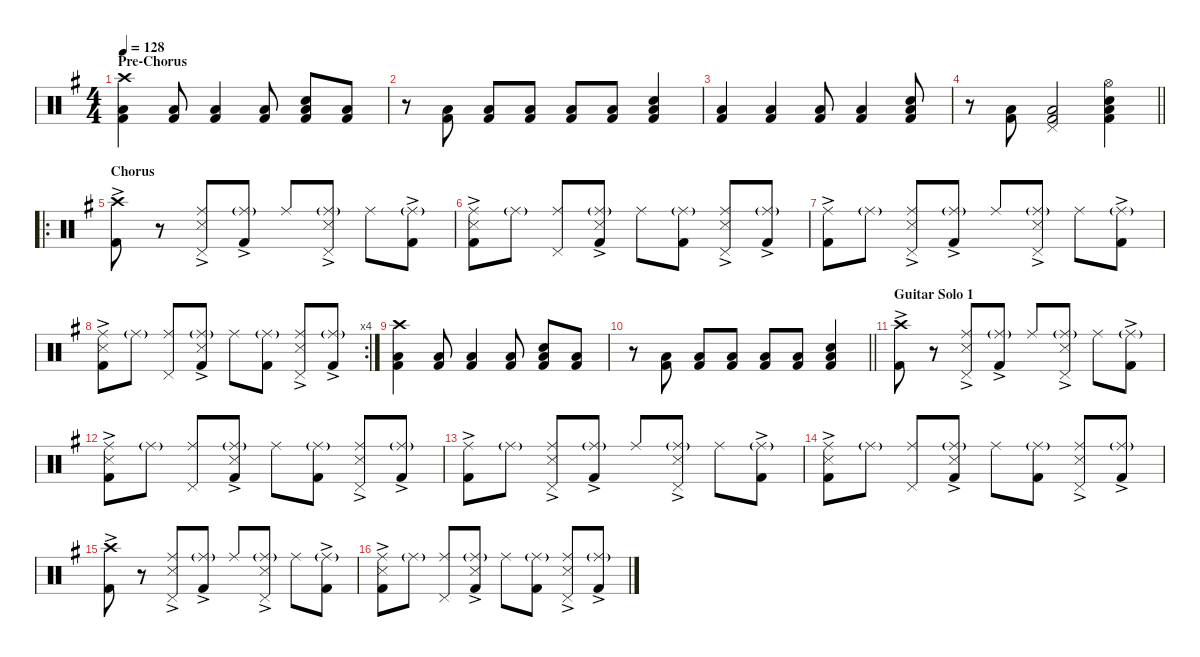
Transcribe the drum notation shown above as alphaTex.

\defaultSystemsLayout 4
\hideDynamics
\bracketExtendMode nobrackets
\singleTrackTrackNamePolicy hidden
\multiTrackTrackNamePolicy hidden
\firstSystemTrackNameMode fullname
\firstSystemTrackNameOrientation horizontal
\otherSystemsTrackNameOrientation horizontal
\track ("Drums" "drm.") {instrument percussion}
\staff {score}
\articulation defaults
\ts (4 4)
\section ("" "Pre-Chorus")
\tempo 128
\clef neutral
\ks g
("Crash high (hit)"{acc forcenatural} "Low Floor Tom (hit)"{acc forcenatural} "Kick (hit) 2"{acc forcenatural}).4{dy f beam Down} ("Low Tom (hit)"{acc forcenatural} "Kick (hit) 2"{acc forcenatural}).8{beam Up} ("Low Floor Tom (hit)"{acc forcenatural} "Kick (hit) 2"{acc forcenatural}).4{beam Up} ("Low Tom (hit)"{acc forcenatural} "Kick (hit) 2"{acc forcenatural}).8{beam Up} ("Snare (hit) 2"{acc forcenatural} "Low Floor Tom (hit)"{acc forcenatural} "Kick (hit) 2"{acc forcenatural}).8{beam Up} ("Low Tom (hit)"{acc forcenatural} "Kick (hit) 2"{acc forcenatural}).8{beam Up} |
r.8{beam Down} ("Low Tom (hit)"{acc forcenatural} "Kick (hit) 2"{acc forcenatural}).8{beam Up} ("Low Floor Tom (hit)"{acc forcenatural} "Kick (hit) 2"{acc forcenatural}).8{beam Up} ("Low Tom (hit)"{acc forcenatural} "Kick (hit) 2"{acc forcenatural}).8{beam Up} ("Low Floor Tom (hit)"{acc forcenatural} "Kick (hit) 2"{acc forcenatural}).8{beam Up} ("Low Tom (hit)"{acc forcenatural} "Kick (hit) 2"{acc forcenatural}).8{beam Up} ("Snare (hit) 2"{acc forcenatural} "Low Floor Tom (hit)"{acc forcenatural} "Kick (hit) 2"{acc forcenatural}).4{beam Up} |
("Low Floor Tom (hit)"{acc forcenatural} "Kick (hit) 2"{acc forcenatural}).4{beam Up} ("Low Tom (hit)"{acc forcenatural} "Kick (hit) 2"{acc forcenatural}).4{beam Up} ("Low Floor Tom (hit)"{acc forcenatural} "Kick (hit) 2"{acc forcenatural}).8{beam Up} ("Low Tom (hit)"{acc forcenatural} "Kick (hit) 2"{acc forcenatural}).4{beam Up} ("Snare (hit) 2"{acc forcenatural} "Low Floor Tom (hit)"{acc forcenatural} "Kick (hit) 2"{acc forcenatural}).8{beam Up} |
\barLineRight lightlight
r.8{beam Down} ("Low Tom (hit)"{acc forcenatural} "Kick (hit) 2"{acc forcenatural}).8{beam Up} ("Pedal Hi-Hat (hit)"{acc forcenatural} "Low Floor Tom (hit)"{acc forcenatural} "Kick (hit) 2"{acc forcenatural}).2{beam Up} ("Hi-Hat (open)"{acc forcenatural} "Snare (hit) 2"{acc forcenatural} "Low Floor Tom (hit)"{acc forcenatural} "Kick (hit) 2"{acc forcenatural}).4{beam Down} |
\ro
\section ("" "Chorus")
("Crash high (hit)"{acc forcenatural} "Kick (hit) 2"{ac acc forcenatural}).8{beam Down} r.8{beam Down} ("Ride (middle)"{acc forcenatural} "Pedal Hi-Hat (hit)"{acc forcenatural} "Snare (side stick) 3"{ac acc forcenatural}).8{beam Up} ("Ride (middle)"{g acc forcenatural} "Kick (hit) 2"{ac acc forcenatural}).8{dy mf beam Up} "Ride (middle)"{acc forcenatural}.8{dy f beam Up} ("Ride (middle)"{g acc forcenatural} "Pedal Hi-Hat (hit)"{acc forcenatural} "Snare (side stick) 3"{ac acc forcenatural}).8{beam Up} "Ride (middle)"{acc forcenatural}.8{beam Down} ("Ride (middle)"{g acc forcenatural} "Kick (hit) 2"{ac acc forcenatural}).8{dy mf beam Down} |
("Ride (middle)"{acc forcenatural} "Snare (side stick) 3"{ac acc forcenatural} "Kick (hit) 2"{ac acc forcenatural}).8{dy f beam Down} "Ride (middle)"{g acc forcenatural}.8{dy mf beam Down} ("Ride (middle)"{acc forcenatural} "Pedal Hi-Hat (hit)"{acc forcenatural}).8{dy f beam Up} ("Ride (middle)"{g acc forcenatural} "Snare (side stick) 3"{ac acc forcenatural} "Kick (hit) 2"{ac acc forcenatural}).8{dy mf beam Up} "Ride (middle)"{acc forcenatural}.8{dy f beam Down} ("Ride (middle)"{g acc forcenatural} "Kick (hit) 2"{acc forcenatural}).8{beam Down} ("Ride (middle)"{acc forcenatural} "Pedal Hi-Hat (hit)"{acc forcenatural} "Snare (side stick) 3"{ac acc forcenatural}).8{beam Up} ("Ride (middle)"{g acc forcenatural} "Kick (hit) 2"{ac acc forcenatural}).8{dy mf beam Up} |
("Ride (middle)"{acc forcenatural} "Kick (hit) 2"{ac acc forcenatural}).8{dy f beam Down} "Ride (middle)"{g acc forcenatural}.8{dy mf beam Down} ("Ride (middle)"{acc forcenatural} "Pedal Hi-Hat (hit)"{acc forcenatural} "Snare (side stick) 3"{ac acc forcenatural}).8{dy f beam Up} ("Ride (middle)"{g acc forcenatural} "Kick (hit) 2"{ac acc forcenatural}).8{dy mf beam Up} "Ride (middle)"{acc forcenatural}.8{dy f beam Up} ("Ride (middle)"{g acc forcenatural} "Pedal Hi-Hat (hit)"{acc forcenatural} "Snare (side stick) 3"{ac acc forcenatural}).8{beam Up} "Ride (middle)"{acc forcenatural}.8{beam Down} ("Ride (middle)"{g acc forcenatural} "Kick (hit) 2"{ac acc forcenatural}).8{dy mf beam Down} |
\rc 4
("Ride (middle)"{acc forcenatural} "Snare (side stick) 3"{ac acc forcenatural} "Kick (hit) 2"{ac acc forcenatural}).8{dy f beam Down} "Ride (middle)"{g acc forcenatural}.8{dy mf beam Down} ("Ride (middle)"{acc forcenatural} "Pedal Hi-Hat (hit)"{acc forcenatural}).8{dy f beam Up} ("Ride (middle)"{g acc forcenatural} "Snare (side stick) 3"{ac acc forcenatural} "Kick (hit) 2"{ac acc forcenatural}).8{dy mf beam Up} "Ride (middle)"{acc forcenatural}.8{dy f beam Down} ("Ride (middle)"{g acc forcenatural} "Kick (hit) 2"{acc forcenatural}).8{beam Down} ("Ride (middle)"{acc forcenatural} "Pedal Hi-Hat (hit)"{acc forcenatural} "Snare (side stick) 3"{ac acc forcenatural}).8{beam Up} ("Ride (middle)"{g acc forcenatural} "Kick (hit) 2"{ac acc forcenatural}).8{dy mf beam Up} |
("Crash high (hit)"{acc forcenatural} "Low Floor Tom (hit)"{acc forcenatural} "Kick (hit) 2"{acc forcenatural}).4{dy f beam Down} ("Low Tom (hit)"{acc forcenatural} "Kick (hit) 2"{acc forcenatural}).8{beam Up} ("Low Floor Tom (hit)"{acc forcenatural} "Kick (hit) 2"{acc forcenatural}).4{beam Up} ("Low Tom (hit)"{acc forcenatural} "Kick (hit) 2"{acc forcenatural}).8{beam Up} ("Snare (hit) 2"{acc forcenatural} "Low Floor Tom (hit)"{acc forcenatural} "Kick (hit) 2"{acc forcenatural}).8{beam Up} ("Low Tom (hit)"{acc forcenatural} "Kick (hit) 2"{acc forcenatural}).8{beam Up} |
\barLineRight lightlight
r.8{beam Down} ("Low Tom (hit)"{acc forcenatural} "Kick (hit) 2"{acc forcenatural}).8{beam Up} ("Low Floor Tom (hit)"{acc forcenatural} "Kick (hit) 2"{acc forcenatural}).8{beam Up} ("Low Tom (hit)"{acc forcenatural} "Kick (hit) 2"{acc forcenatural}).8{beam Up} ("Low Floor Tom (hit)"{acc forcenatural} "Kick (hit) 2"{acc forcenatural}).8{beam Up} ("Low Tom (hit)"{acc forcenatural} "Kick (hit) 2"{acc forcenatural}).8{beam Up} ("Snare (hit) 2"{acc forcenatural} "Low Floor Tom (hit)"{acc forcenatural} "Kick (hit) 2"{acc forcenatural}).4{beam Up} |
\section ("" "Guitar Solo 1")
("Crash high (hit)"{acc forcenatural} "Kick (hit) 2"{ac acc forcenatural}).8{beam Down} r.8{beam Down} ("Ride (middle)"{acc forcenatural} "Pedal Hi-Hat (hit)"{acc forcenatural} "Snare (side stick) 3"{ac acc forcenatural}).8{beam Up} ("Ride (middle)"{g acc forcenatural} "Kick (hit) 2"{ac acc forcenatural}).8{dy mf beam Up} "Ride (middle)"{acc forcenatural}.8{dy f beam Up} ("Ride (middle)"{g acc forcenatural} "Pedal Hi-Hat (hit)"{acc forcenatural} "Snare (side stick) 3"{ac acc forcenatural}).8{beam Up} "Ride (middle)"{acc forcenatural}.8{beam Down} ("Ride (middle)"{g acc forcenatural} "Kick (hit) 2"{ac acc forcenatural}).8{dy mf beam Down} |
("Ride (middle)"{acc forcenatural} "Snare (side stick) 3"{ac acc forcenatural} "Kick (hit) 2"{ac acc forcenatural}).8{dy f beam Down} "Ride (middle)"{g acc forcenatural}.8{dy mf beam Down} ("Ride (middle)"{acc forcenatural} "Pedal Hi-Hat (hit)"{acc forcenatural}).8{dy f beam Up} ("Ride (middle)"{g acc forcenatural} "Snare (side stick) 3"{ac acc forcenatural} "Kick (hit) 2"{ac acc forcenatural}).8{dy mf beam Up} "Ride (middle)"{acc forcenatural}.8{dy f beam Down} ("Ride (middle)"{g acc forcenatural} "Kick (hit) 2"{acc forcenatural}).8{beam Down} ("Ride (middle)"{acc forcenatural} "Pedal Hi-Hat (hit)"{acc forcenatural} "Snare (side stick) 3"{ac acc forcenatural}).8{beam Up} ("Ride (middle)"{g acc forcenatural} "Kick (hit) 2"{ac acc forcenatural}).8{dy mf beam Up} |
("Ride (middle)"{acc forcenatural} "Kick (hit) 2"{ac acc forcenatural}).8{dy f beam Down} "Ride (middle)"{g acc forcenatural}.8{dy mf beam Down} ("Ride (middle)"{acc forcenatural} "Pedal Hi-Hat (hit)"{acc forcenatural} "Snare (side stick) 3"{ac acc forcenatural}).8{dy f beam Up} ("Ride (middle)"{g acc forcenatural} "Kick (hit) 2"{ac acc forcenatural}).8{dy mf beam Up} "Ride (middle)"{acc forcenatural}.8{dy f beam Up} ("Ride (middle)"{g acc forcenatural} "Pedal Hi-Hat (hit)"{acc forcenatural} "Snare (side stick) 3"{ac acc forcenatural}).8{beam Up} "Ride (middle)"{acc forcenatural}.8{beam Down} ("Ride (middle)"{g acc forcenatural} "Kick (hit) 2"{ac acc forcenatural}).8{dy mf beam Down} |
("Ride (middle)"{acc forcenatural} "Snare (side stick) 3"{ac acc forcenatural} "Kick (hit) 2"{ac acc forcenatural}).8{dy f beam Down} "Ride (middle)"{g acc forcenatural}.8{dy mf beam Down} ("Ride (middle)"{acc forcenatural} "Pedal Hi-Hat (hit)"{acc forcenatural}).8{dy f beam Up} ("Ride (middle)"{g acc forcenatural} "Snare (side stick) 3"{ac acc forcenatural} "Kick (hit) 2"{ac acc forcenatural}).8{dy mf beam Up} "Ride (middle)"{acc forcenatural}.8{dy f beam Down} ("Ride (middle)"{g acc forcenatural} "Kick (hit) 2"{acc forcenatural}).8{beam Down} ("Ride (middle)"{acc forcenatural} "Pedal Hi-Hat (hit)"{acc forcenatural} "Snare (side stick) 3"{ac acc forcenatural}).8{beam Up} ("Ride (middle)"{g acc forcenatural} "Kick (hit) 2"{ac acc forcenatural}).8{dy mf beam Up} |
("Crash high (hit)"{acc forcenatural} "Kick (hit) 2"{ac acc forcenatural}).8{dy f beam Down} r.8{beam Down} ("Ride (middle)"{acc forcenatural} "Pedal Hi-Hat (hit)"{acc forcenatural} "Snare (side stick) 3"{ac acc forcenatural}).8{beam Up} ("Ride (middle)"{g acc forcenatural} "Kick (hit) 2"{ac acc forcenatural}).8{dy mf beam Up} "Ride (middle)"{acc forcenatural}.8{dy f beam Up} ("Ride (middle)"{g acc forcenatural} "Pedal Hi-Hat (hit)"{acc forcenatural} "Snare (side stick) 3"{ac acc forcenatural}).8{beam Up} "Ride (middle)"{acc forcenatural}.8{beam Down} ("Ride (middle)"{g acc forcenatural} "Kick (hit) 2"{ac acc forcenatural}).8{dy mf beam Down} |
("Ride (middle)"{acc forcenatural} "Snare (side stick) 3"{ac acc forcenatural} "Kick (hit) 2"{ac acc forcenatural}).8{dy f beam Down} "Ride (middle)"{g acc forcenatural}.8{dy mf beam Down} ("Ride (middle)"{acc forcenatural} "Pedal Hi-Hat (hit)"{acc forcenatural}).8{dy f beam Up} ("Ride (middle)"{g acc forcenatural} "Snare (side stick) 3"{ac acc forcenatural} "Kick (hit) 2"{ac acc forcenatural}).8{dy mf beam Up} "Ride (middle)"{acc forcenatural}.8{dy f beam Down} ("Ride (middle)"{g acc forcenatural} "Kick (hit) 2"{acc forcenatural}).8{beam Down} ("Ride (middle)"{acc forcenatural} "Pedal Hi-Hat (hit)"{acc forcenatural} "Snare (side stick) 3"{ac acc forcenatural}).8{beam Up} ("Ride (middle)"{g acc forcenatural} "Kick (hit) 2"{ac acc forcenatural}).8{dy mf beam Up}
